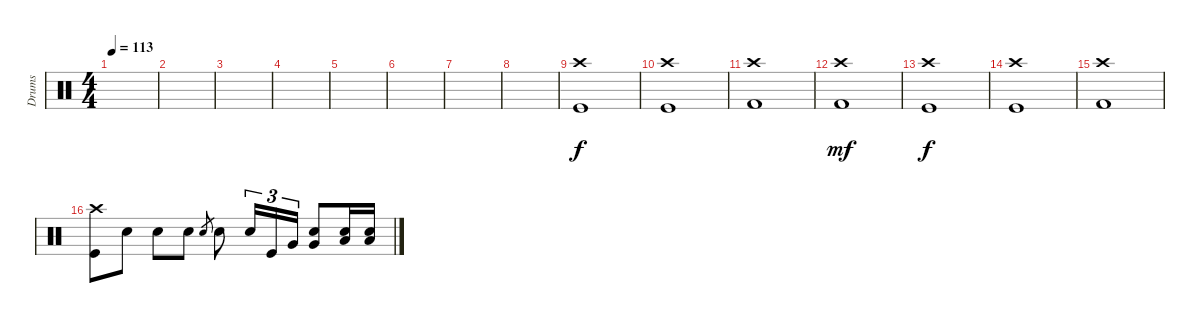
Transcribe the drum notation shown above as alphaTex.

\track ("Drums" "Drums") {instrument percussion}
\staff {score}
\articulation defaults
\ts (4 4)
\tempo 113
\clef neutral
\ks c
|
|
|
|
|
|
|
|
("Crash high (hit)" "Kick (hit)").1 |
("Crash high (hit)" "Kick (hit)").1 |
("Crash high (hit)" "Kick (hit) 2").1 |
("Crash high (hit)" "Kick (hit) 2").1{dy mf} |
("Crash high (hit)" "Kick (hit)").1{dy f} |
("Crash high (hit)" "Kick (hit)").1 |
("Crash high (hit)" "Kick (hit) 2").1 |
("Crash high (hit)" "Kick (hit)").8 "Electric Snare (hit)".8 "Electric Snare (hit)".8 "Electric Snare (hit)".8 "Snare (hit) 2".8{gr} "Electric Snare (hit)".8 "Snare (hit) 2".16{tu (3 2)} "Kick (hit)".16{tu (3 2)} "Very Low Tom (hit)".16{tu (3 2)} ("Very Low Tom (hit)" "Snare (hit) 2").8 ("Low Floor Tom (hit)" "Snare (hit) 2").16 ("Low Floor Tom (hit)" "Snare (hit) 2").16
